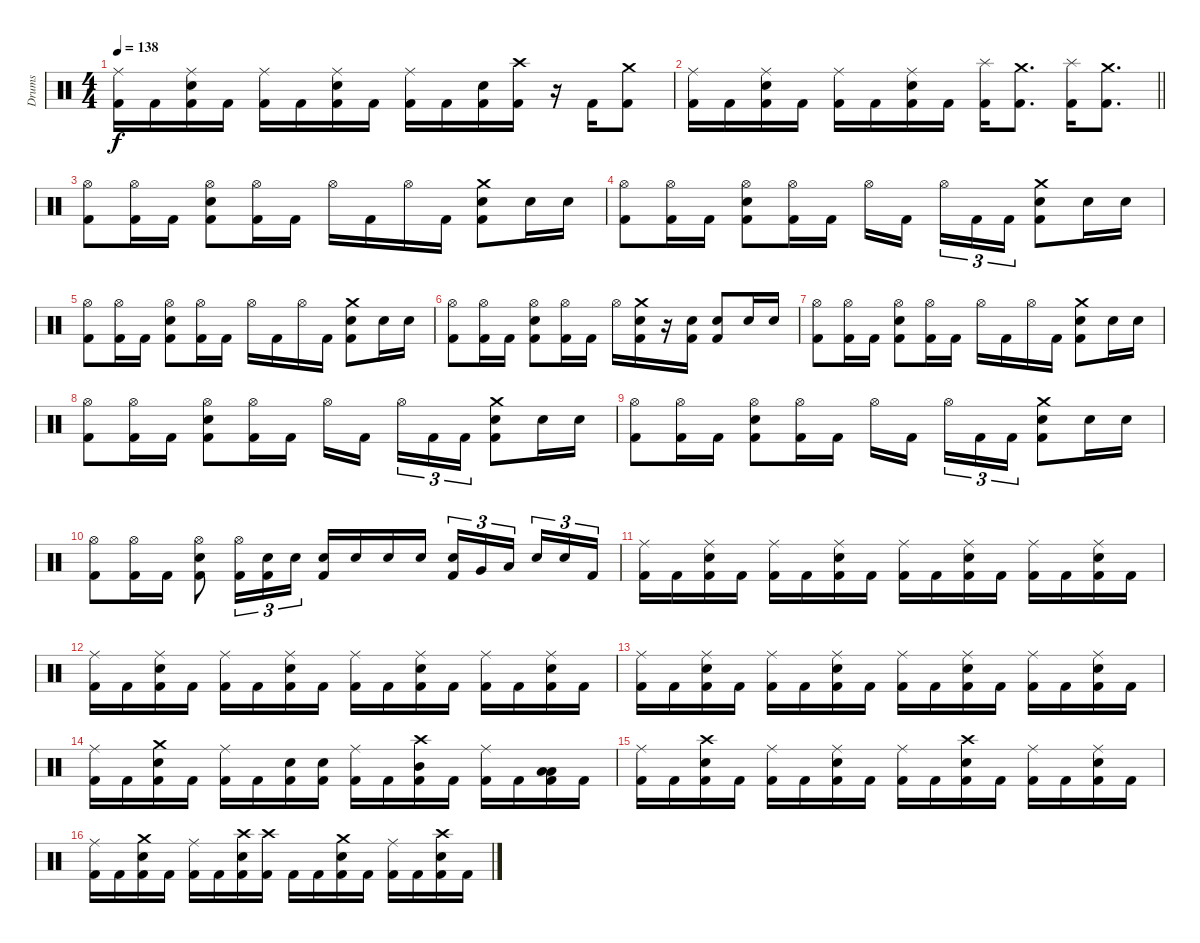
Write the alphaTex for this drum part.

\track ("Drums" "Drums") {instrument percussion}
\staff {score}
\articulation defaults
\ts (4 4)
\tempo 138
\clef neutral
\ks c
("Ride (middle)" "Kick (hit) 2").16{dy f} "Kick (hit) 2".16 ("Ride (middle)" "Electric Snare (hit)" "Kick (hit) 2").16 "Kick (hit) 2".16 ("Ride (middle)" "Kick (hit) 2").16 "Kick (hit) 2".16 ("Ride (middle)" "Electric Snare (hit)" "Kick (hit) 2").16 "Kick (hit) 2".16 ("Ride (middle)" "Kick (hit) 2").16 "Kick (hit) 2".16 ("Electric Snare (hit)" "Kick (hit) 2").16 ("Crash high (hit)" "Kick (hit) 2").16 r.16 "Kick (hit) 2".16 ("Crash medium (hit)" "Kick (hit) 2").8 |
\barLineRight lightlight
("Ride (middle)" "Kick (hit) 2").16 "Kick (hit) 2".16 ("Ride (middle)" "Electric Snare (hit)" "Kick (hit) 2").16 "Kick (hit) 2".16 ("Ride (middle)" "Kick (hit) 2").16 "Kick (hit) 2".16 ("Ride (middle)" "Electric Snare (hit)" "Kick (hit) 2").16 "Kick (hit) 2".16 ("Splash (hit)" "Kick (hit) 2").16 ("Crash medium (hit)" "Kick (hit) 2").8{d} ("Splash (hit)" "Kick (hit) 2").16 ("Crash medium (hit)" "Kick (hit) 2").8{d} |
("Hi-Hat (open)" "Kick (hit) 2").8 ("Hi-Hat (open)" "Kick (hit) 2").16 "Kick (hit) 2".16 ("Hi-Hat (open)" "Electric Snare (hit)" "Kick (hit) 2").8 ("Hi-Hat (open)" "Kick (hit) 2").16 "Kick (hit) 2".16 "Hi-Hat (open)".16 "Kick (hit) 2".16 "Hi-Hat (open)".16 "Kick (hit) 2".16 ("Crash medium (hit)" "Electric Snare (hit)" "Kick (hit) 2").8 "Electric Snare (hit)".16 "Electric Snare (hit)".16 |
("Hi-Hat (open)" "Kick (hit) 2").8 ("Hi-Hat (open)" "Kick (hit) 2").16 "Kick (hit) 2".16 ("Hi-Hat (open)" "Electric Snare (hit)" "Kick (hit) 2").8 ("Hi-Hat (open)" "Kick (hit) 2").16 "Kick (hit) 2".16 "Hi-Hat (open)".16 "Kick (hit) 2".16{beam splitsecondary} "Hi-Hat (open)".16{tu (3 2)} "Kick (hit) 2".16{tu (3 2)} "Kick (hit) 2".16{tu (3 2)} ("Crash medium (hit)" "Electric Snare (hit)" "Kick (hit) 2").8 "Electric Snare (hit)".16 "Electric Snare (hit)".16 |
("Hi-Hat (open)" "Kick (hit) 2").8 ("Hi-Hat (open)" "Kick (hit) 2").16 "Kick (hit) 2".16 ("Hi-Hat (open)" "Electric Snare (hit)" "Kick (hit) 2").8 ("Hi-Hat (open)" "Kick (hit) 2").16 "Kick (hit) 2".16 "Hi-Hat (open)".16 "Kick (hit) 2".16 "Hi-Hat (open)".16 "Kick (hit) 2".16 ("Crash medium (hit)" "Electric Snare (hit)" "Kick (hit) 2").8 "Electric Snare (hit)".16 "Electric Snare (hit)".16 |
("Hi-Hat (open)" "Kick (hit) 2").8 ("Hi-Hat (open)" "Kick (hit) 2").16 "Kick (hit) 2".16 ("Hi-Hat (open)" "Electric Snare (hit)" "Kick (hit) 2").8 ("Hi-Hat (open)" "Kick (hit) 2").16 "Kick (hit) 2".16 "Hi-Hat (open)".16 ("Crash medium (hit)" "Electric Snare (hit)" "Kick (hit) 2").16 r.16 ("Electric Snare (hit)" "Kick (hit) 2").16 ("Electric Snare (hit)" "Kick (hit) 2").8 "Electric Snare (hit)".16 "Electric Snare (hit)".16 |
("Hi-Hat (open)" "Kick (hit) 2").8 ("Hi-Hat (open)" "Kick (hit) 2").16 "Kick (hit) 2".16 ("Hi-Hat (open)" "Electric Snare (hit)" "Kick (hit) 2").8 ("Hi-Hat (open)" "Kick (hit) 2").16 "Kick (hit) 2".16 "Hi-Hat (open)".16 "Kick (hit) 2".16 "Hi-Hat (open)".16 "Kick (hit) 2".16 ("Crash medium (hit)" "Electric Snare (hit)" "Kick (hit) 2").8 "Electric Snare (hit)".16 "Electric Snare (hit)".16 |
("Hi-Hat (open)" "Kick (hit) 2").8 ("Hi-Hat (open)" "Kick (hit) 2").16 "Kick (hit) 2".16 ("Hi-Hat (open)" "Electric Snare (hit)" "Kick (hit) 2").8 ("Hi-Hat (open)" "Kick (hit) 2").16 "Kick (hit) 2".16 "Hi-Hat (open)".16 "Kick (hit) 2".16{beam splitsecondary} "Hi-Hat (open)".16{tu (3 2)} "Kick (hit) 2".16{tu (3 2)} "Kick (hit) 2".16{tu (3 2)} ("Crash medium (hit)" "Electric Snare (hit)" "Kick (hit) 2").8 "Electric Snare (hit)".16 "Electric Snare (hit)".16 |
("Hi-Hat (open)" "Kick (hit) 2").8 ("Hi-Hat (open)" "Kick (hit) 2").16 "Kick (hit) 2".16 ("Hi-Hat (open)" "Electric Snare (hit)" "Kick (hit) 2").8 ("Hi-Hat (open)" "Kick (hit) 2").16 "Kick (hit) 2".16 "Hi-Hat (open)".16 "Kick (hit) 2".16{beam splitsecondary} "Hi-Hat (open)".16{tu (3 2)} "Kick (hit) 2".16{tu (3 2)} "Kick (hit) 2".16{tu (3 2)} ("Crash medium (hit)" "Electric Snare (hit)" "Kick (hit) 2").8 "Electric Snare (hit)".16 "Electric Snare (hit)".16 |
("Hi-Hat (open)" "Kick (hit) 2").8 ("Hi-Hat (open)" "Kick (hit) 2").16 "Kick (hit) 2".16 ("Hi-Hat (open)" "Electric Snare (hit)" "Kick (hit) 2").8 ("Hi-Hat (open)" "Kick (hit) 2").16{tu (3 2)} ("Electric Snare (hit)" "Kick (hit) 2").16{tu (3 2)} "Electric Snare (hit)".16{tu (3 2)} ("Electric Snare (hit)" "Kick (hit) 2").16 "Electric Snare (hit)".16 "Electric Snare (hit)".16 "Electric Snare (hit)".16 ("Electric Snare (hit)" "Kick (hit) 2").16{tu (3 2)} "Very Low Tom (hit)".16{tu (3 2)} "Low Floor Tom (hit)".16{tu (3 2) beam splitsecondary} "Electric Snare (hit)".16{tu (3 2)} "Electric Snare (hit)".16{tu (3 2)} "Kick (hit) 2".16{tu (3 2)} |
("Ride (middle)" "Kick (hit) 2").16 "Kick (hit) 2".16 ("Ride (middle)" "Electric Snare (hit)" "Kick (hit) 2").16 "Kick (hit) 2".16 ("Ride (middle)" "Kick (hit) 2").16 "Kick (hit) 2".16 ("Ride (middle)" "Electric Snare (hit)" "Kick (hit) 2").16 "Kick (hit) 2".16 ("Ride (middle)" "Kick (hit) 2").16 "Kick (hit) 2".16 ("Ride (middle)" "Electric Snare (hit)" "Kick (hit) 2").16 "Kick (hit) 2".16 ("Ride (middle)" "Kick (hit) 2").16 "Kick (hit) 2".16 ("Ride (middle)" "Electric Snare (hit)" "Kick (hit) 2").16 "Kick (hit) 2".16 |
("Ride (middle)" "Kick (hit) 2").16 "Kick (hit) 2".16 ("Ride (middle)" "Electric Snare (hit)" "Kick (hit) 2").16 "Kick (hit) 2".16 ("Ride (middle)" "Kick (hit) 2").16 "Kick (hit) 2".16 ("Ride (middle)" "Electric Snare (hit)" "Kick (hit) 2").16 "Kick (hit) 2".16 ("Ride (middle)" "Kick (hit) 2").16 "Kick (hit) 2".16 ("Ride (middle)" "Electric Snare (hit)" "Kick (hit) 2").16 "Kick (hit) 2".16 ("Ride (middle)" "Kick (hit) 2").16 "Kick (hit) 2".16 ("Ride (middle)" "Electric Snare (hit)" "Kick (hit) 2").16 "Kick (hit) 2".16 |
("Ride (middle)" "Kick (hit) 2").16 "Kick (hit) 2".16 ("Ride (middle)" "Electric Snare (hit)" "Kick (hit) 2").16 "Kick (hit) 2".16 ("Ride (middle)" "Kick (hit) 2").16 "Kick (hit) 2".16 ("Ride (middle)" "Electric Snare (hit)" "Kick (hit) 2").16 "Kick (hit) 2".16 ("Ride (middle)" "Kick (hit) 2").16 "Kick (hit) 2".16 ("Ride (middle)" "Electric Snare (hit)" "Kick (hit) 2").16 "Kick (hit) 2".16 ("Ride (middle)" "Kick (hit) 2").16 "Kick (hit) 2".16 ("Ride (middle)" "Electric Snare (hit)" "Kick (hit) 2").16 "Kick (hit) 2".16 |
("Ride (middle)" "Kick (hit) 2").16 "Kick (hit) 2".16 ("Crash medium (hit)" "Electric Snare (hit)" "Kick (hit) 2").16 "Kick (hit) 2".16 ("Ride (middle)" "Kick (hit) 2").16 "Kick (hit) 2".16 ("Electric Snare (hit)" "Kick (hit) 2").16 ("Electric Snare (hit)" "Kick (hit) 2").16 ("Ride (middle)" "Kick (hit) 2").16 "Kick (hit) 2".16 ("Crash high (hit)" "Mid Tom (hit)" "Kick (hit) 2").16 "Kick (hit) 2".16 ("Ride (middle)" "Kick (hit) 2").16 "Kick (hit) 2".16 ("Low Tom (hit)" "Low Tom (hit)" "Kick (hit) 2").16 "Kick (hit) 2".16 |
("Ride (middle)" "Kick (hit) 2").16 "Kick (hit) 2".16 ("Crash high (hit)" "Electric Snare (hit)" "Kick (hit) 2").16 "Kick (hit) 2".16 ("Ride (middle)" "Kick (hit) 2").16 "Kick (hit) 2".16 ("Ride (middle)" "Electric Snare (hit)" "Kick (hit) 2").16 "Kick (hit) 2".16 ("Ride (middle)" "Kick (hit) 2").16 "Kick (hit) 2".16 ("Crash high (hit)" "Electric Snare (hit)" "Kick (hit) 2").16 "Kick (hit) 2".16 ("Ride (middle)" "Kick (hit) 2").16 "Kick (hit) 2".16 ("Ride (middle)" "Electric Snare (hit)" "Kick (hit) 2").16 "Kick (hit) 2".16 |
("Ride (middle)" "Kick (hit) 2").16 "Kick (hit) 2".16 ("Crash medium (hit)" "Electric Snare (hit)" "Kick (hit) 2").16 "Kick (hit) 2".16 ("Ride (middle)" "Kick (hit) 2").16 "Kick (hit) 2".16 ("Crash high (hit)" "Electric Snare (hit)" "Kick (hit) 2").16 ("Crash high (hit)" "Kick (hit) 2").16 "Kick (hit) 2".16 "Kick (hit) 2".16 ("Crash medium (hit)" "Electric Snare (hit)" "Kick (hit) 2").16 "Kick (hit) 2".16 ("Ride (middle)" "Kick (hit) 2").16 "Kick (hit) 2".16 ("Crash high (hit)" "Electric Snare (hit)" "Kick (hit) 2").16 "Kick (hit) 2".16
